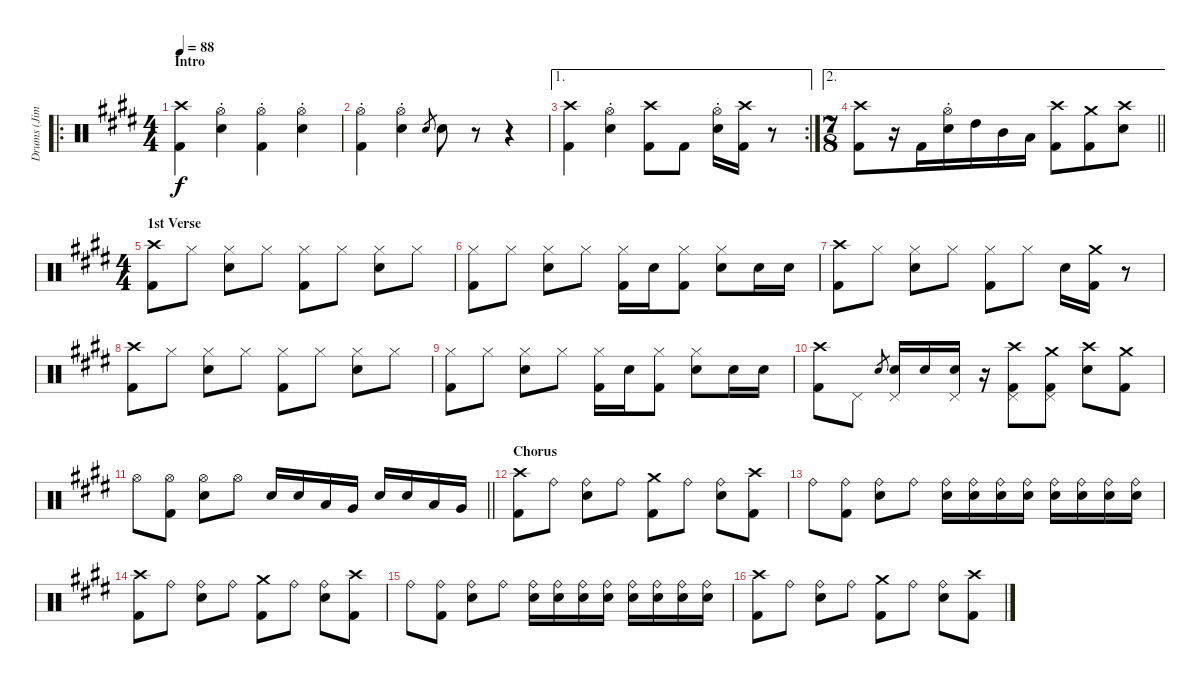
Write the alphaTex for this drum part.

\track ("Drums (Jimmy)" "Drums (Jim") {instrument percussion}
\staff {score}
\articulation defaults
\ro
\ts (4 4)
\section ("" "Intro")
\tempo 88
\clef neutral
\ks e
("Crash high (hit)" "Kick (hit) 2").4{dy f} ("Hi-Hat (open)"{st} "Snare (hit) 2").4 ("Hi-Hat (open)"{st} "Kick (hit) 2").4 ("Hi-Hat (open)"{st} "Snare (hit) 2").4 |
\ks c#minor
("Hi-Hat (open)"{st} "Kick (hit) 2").4 ("Hi-Hat (open)"{st} "Snare (hit) 2").4 "Snare (hit) 2".8{gr} "Snare (hit) 2".8 r.8 r.4 |
\ae 1
\rc 2
\ks e
("Crash high (hit)" "Kick (hit) 2").4 ("Hi-Hat (open)"{st} "Snare (hit) 2").4 ("Crash high (hit)" "Kick (hit) 2").8 "Kick (hit) 2".8 ("Hi-Hat (open)"{st} "Snare (hit) 2").16 ("Crash high (hit)" "Kick (hit) 2").16 r.8 |
\ae 2
\ts (7 8)
\barLineRight lightlight
\ks c#minor
("Crash high (hit)" "Kick (hit) 2").8 r.16 "Kick (hit) 2".16 ("Hi-Hat (open)"{st} "Snare (hit) 2").16 "High Tom (hit)".16 "Mid Tom (hit)".16 "Low Tom (hit)".16 ("Crash high (hit)" "Kick (hit) 2").8 ("Crash medium (hit)" "Kick (hit) 2").8 ("Crash high (hit)" "Snare (hit) 2").8 |
\ts (4 4)
\section ("" "1st Verse")
\ks e
("Crash high (hit)" "Kick (hit) 2").8 "Hi-Hat (closed)".8 ("Hi-Hat (closed)" "Snare (hit) 2").8 "Hi-Hat (closed)".8 ("Hi-Hat (closed)" "Kick (hit) 2").8 "Hi-Hat (closed)".8 ("Hi-Hat (closed)" "Snare (hit) 2").8 "Hi-Hat (closed)".8 |
\ks c#minor
("Hi-Hat (closed)" "Kick (hit) 2").8 "Hi-Hat (closed)".8 ("Hi-Hat (closed)" "Snare (hit) 2").8 "Hi-Hat (closed)".8 ("Hi-Hat (closed)" "Kick (hit) 2").16 "Snare (hit) 2".16 ("Hi-Hat (closed)" "Kick (hit) 2").8 ("Hi-Hat (closed)" "Snare (hit) 2").8 "Snare (hit) 2".16 "Snare (hit) 2".16 |
\ks e
("Crash high (hit)" "Kick (hit) 2").8 "Hi-Hat (closed)".8 ("Hi-Hat (closed)" "Snare (hit) 2").8 "Hi-Hat (closed)".8 ("Hi-Hat (closed)" "Kick (hit) 2").8 "Hi-Hat (closed)".8 "Snare (hit) 2".16 ("Crash medium (hit)" "Kick (hit) 2").16 r.8 |
("Crash high (hit)" "Kick (hit) 2").8 "Hi-Hat (closed)".8 ("Hi-Hat (closed)" "Snare (hit) 2").8 "Hi-Hat (closed)".8 ("Hi-Hat (closed)" "Kick (hit) 2").8 "Hi-Hat (closed)".8 ("Hi-Hat (closed)" "Snare (hit) 2").8 "Hi-Hat (closed)".8 |
\ks c#minor
("Hi-Hat (closed)" "Kick (hit) 2").8 "Hi-Hat (closed)".8 ("Hi-Hat (closed)" "Snare (hit) 2").8 "Hi-Hat (closed)".8 ("Hi-Hat (closed)" "Kick (hit) 2").16 "Snare (hit) 2".16 ("Hi-Hat (closed)" "Kick (hit) 2").8 ("Hi-Hat (closed)" "Snare (hit) 2").8 "Snare (hit) 2".16 "Snare (hit) 2".16 |
("Crash high (hit)" "Kick (hit) 2").8 "Pedal Hi-Hat (hit)".8 "Snare (hit) 2".8{gr} ("Snare (hit) 2" "Pedal Hi-Hat (hit)").16 "Snare (hit) 2".16 ("Snare (hit) 2" "Pedal Hi-Hat (hit)").16 r.16 ("Crash high (hit)" "Kick (hit) 2" "Pedal Hi-Hat (hit)").8 ("Crash medium (hit)" "Kick (hit) 2" "Pedal Hi-Hat (hit)").8 ("Crash high (hit)" "Snare (hit) 2").8 ("Crash medium (hit)" "Kick (hit) 2").8 |
\barLineRight lightlight
\ks e "Hi-Hat (open)".8
("Hi-Hat (open)" "Kick (hit) 2").8 ("Hi-Hat (open)" "Snare (hit) 2").8 "Hi-Hat (open)".8 "Snare (hit) 2".16 "Snare (hit) 2".16 "Low Tom (hit)".16 "Very Low Tom (hit)".16 "Snare (hit) 2".16 "Snare (hit) 2".16 "Low Tom (hit)".16 "Very Low Tom (hit)".16 |
\section ("" "Chorus")
\ks c#minor
("Crash high (hit)" "Kick (hit) 2").8 "Ride (bell)".8 ("Ride (bell)" "Snare (hit) 2").8 "Ride (bell)".8 ("Crash medium (hit)" "Kick (hit) 2").8 "Ride (bell)".8 ("Ride (bell)" "Snare (hit) 2").8 ("Crash high (hit)" "Kick (hit) 2").8 |
\ks e "Ride (bell)".8
("Ride (bell)" "Kick (hit) 2").8 ("Ride (bell)" "Snare (hit) 2").8 "Ride (bell)".8 ("Ride (bell)" "Snare (hit) 2").16 ("Ride (bell)" "Snare (hit) 2").16 ("Ride (bell)" "Snare (hit) 2").16 ("Ride (bell)" "Snare (hit) 2").16 ("Ride (bell)" "Snare (hit) 2").16 ("Ride (bell)" "Snare (hit) 2").16 ("Ride (bell)" "Snare (hit) 2").16 ("Ride (bell)" "Snare (hit) 2").16 |
\ks c#minor
("Crash high (hit)" "Kick (hit) 2").8 "Ride (bell)".8 ("Ride (bell)" "Snare (hit) 2").8 "Ride (bell)".8 ("Crash medium (hit)" "Kick (hit) 2").8 "Ride (bell)".8 ("Ride (bell)" "Snare (hit) 2").8 ("Crash high (hit)" "Kick (hit) 2").8 |
\ks e "Ride (bell)".8
("Ride (bell)" "Kick (hit) 2").8 ("Ride (bell)" "Snare (hit) 2").8 "Ride (bell)".8 ("Ride (bell)" "Snare (hit) 2").16 ("Ride (bell)" "Snare (hit) 2").16 ("Ride (bell)" "Snare (hit) 2").16 ("Ride (bell)" "Snare (hit) 2").16 ("Ride (bell)" "Snare (hit) 2").16 ("Ride (bell)" "Snare (hit) 2").16 ("Ride (bell)" "Snare (hit) 2").16 ("Ride (bell)" "Snare (hit) 2").16 |
\ks c#minor
("Crash high (hit)" "Kick (hit) 2").8 "Ride (bell)".8 ("Ride (bell)" "Snare (hit) 2").8 "Ride (bell)".8 ("Crash medium (hit)" "Kick (hit) 2").8 "Ride (bell)".8 ("Ride (bell)" "Snare (hit) 2").8 ("Crash high (hit)" "Kick (hit) 2").8
